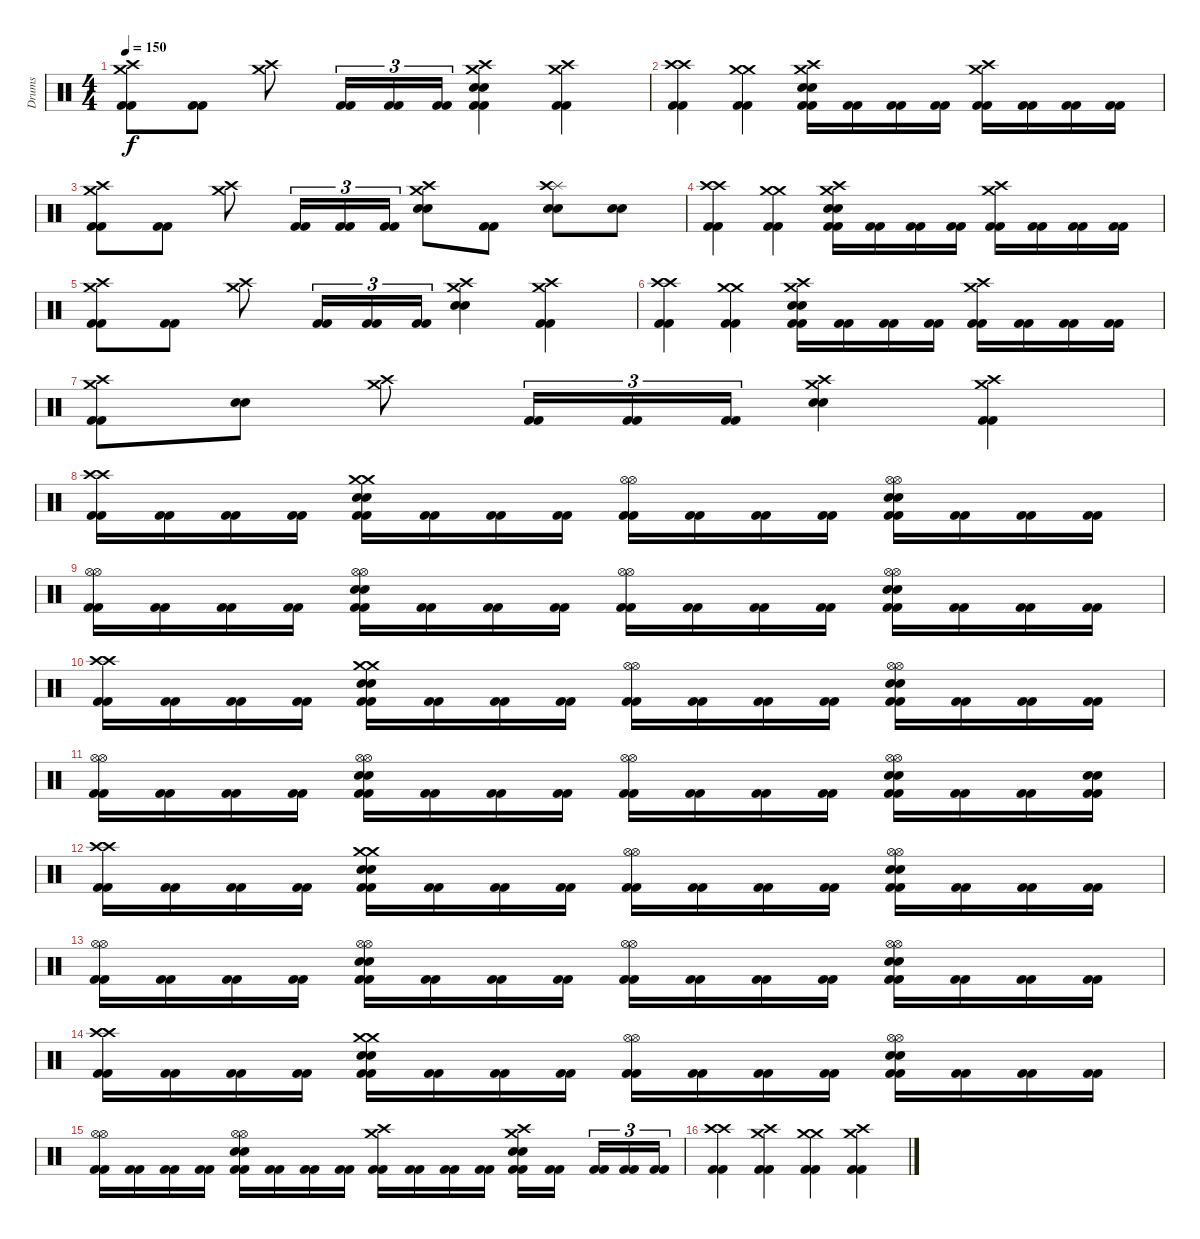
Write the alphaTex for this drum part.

\track ("Drums" "Drums") {instrument percussion}
\staff {score}
\articulation defaults
\ts (4 4)
\tempo 150
\clef neutral
\ks c
("Crash medium (hit)" "Crash high (hit)" "Kick (hit) 2" "Kick (hit) 2").8{dy f} ("Kick (hit) 2" "Kick (hit) 2").8 ("Crash medium (hit)" "Crash high (hit)").8 ("Kick (hit) 2" "Kick (hit) 2").16{tu (3 2)} ("Kick (hit) 2" "Kick (hit) 2").16{tu (3 2)} ("Kick (hit) 2" "Kick (hit) 2").16{tu (3 2)} ("Crash medium (hit)" "Crash high (hit)" "Electric Snare (hit)" "Electric Snare (hit)" "Kick (hit) 2" "Kick (hit) 2").4 ("Crash medium (hit)" "Crash high (hit)" "Kick (hit) 2" "Kick (hit) 2").4 |
("Crash high (hit)" "Crash high (hit)" "Kick (hit) 2" "Kick (hit) 2").4 ("Crash medium (hit)" "Crash medium (hit)" "Kick (hit) 2" "Kick (hit) 2").4 ("Crash medium (hit)" "Crash high (hit)" "Electric Snare (hit)" "Electric Snare (hit)" "Kick (hit) 2" "Kick (hit) 2").16 ("Kick (hit) 2" "Kick (hit) 2").16 ("Kick (hit) 2" "Kick (hit) 2").16 ("Kick (hit) 2" "Kick (hit) 2").16 ("Crash medium (hit)" "Crash high (hit)" "Kick (hit) 2" "Kick (hit) 2").16 ("Kick (hit) 2" "Kick (hit) 2").16 ("Kick (hit) 2" "Kick (hit) 2").16 ("Kick (hit) 2" "Kick (hit) 2").16 |
("Crash medium (hit)" "Crash high (hit)" "Kick (hit) 2" "Kick (hit) 2").8 ("Kick (hit) 2" "Kick (hit) 2").8 ("Crash medium (hit)" "Crash high (hit)").8 ("Kick (hit) 2" "Kick (hit) 2").16{tu (3 2)} ("Kick (hit) 2" "Kick (hit) 2").16{tu (3 2)} ("Kick (hit) 2" "Kick (hit) 2").16{tu (3 2)} ("Crash medium (hit)" "Crash high (hit)" "Electric Snare (hit)" "Electric Snare (hit)").8 ("Kick (hit) 2" "Kick (hit) 2").8 ("Splash (hit)" "Crash high (hit)" "Electric Snare (hit)" "Electric Snare (hit)").8 ("Electric Snare (hit)" "Electric Snare (hit)").8 |
("Crash high (hit)" "Crash high (hit)" "Kick (hit) 2" "Kick (hit) 2").4 ("Crash medium (hit)" "Crash medium (hit)" "Kick (hit) 2" "Kick (hit) 2").4 ("Crash medium (hit)" "Crash high (hit)" "Electric Snare (hit)" "Electric Snare (hit)" "Kick (hit) 2" "Kick (hit) 2").16 ("Kick (hit) 2" "Kick (hit) 2").16 ("Kick (hit) 2" "Kick (hit) 2").16 ("Kick (hit) 2" "Kick (hit) 2").16 ("Crash medium (hit)" "Crash high (hit)" "Kick (hit) 2" "Kick (hit) 2").16 ("Kick (hit) 2" "Kick (hit) 2").16 ("Kick (hit) 2" "Kick (hit) 2").16 ("Kick (hit) 2" "Kick (hit) 2").16 |
("Crash medium (hit)" "Crash high (hit)" "Kick (hit) 2" "Kick (hit) 2").8 ("Kick (hit) 2" "Kick (hit) 2").8 ("Crash medium (hit)" "Crash high (hit)").8 ("Kick (hit) 2" "Kick (hit) 2").16{tu (3 2)} ("Kick (hit) 2" "Kick (hit) 2").16{tu (3 2)} ("Kick (hit) 2" "Kick (hit) 2").16{tu (3 2)} ("Crash medium (hit)" "Crash high (hit)" "Electric Snare (hit)" "Electric Snare (hit)").4 ("Crash medium (hit)" "Crash high (hit)" "Kick (hit) 2" "Kick (hit) 2").4 |
("Crash high (hit)" "Crash high (hit)" "Kick (hit) 2" "Kick (hit) 2").4 ("Crash medium (hit)" "Crash medium (hit)" "Kick (hit) 2" "Kick (hit) 2").4 ("Crash medium (hit)" "Crash high (hit)" "Electric Snare (hit)" "Electric Snare (hit)" "Kick (hit) 2" "Kick (hit) 2").16 ("Kick (hit) 2" "Kick (hit) 2").16 ("Kick (hit) 2" "Kick (hit) 2").16 ("Kick (hit) 2" "Kick (hit) 2").16 ("Crash medium (hit)" "Crash high (hit)" "Kick (hit) 2" "Kick (hit) 2").16 ("Kick (hit) 2" "Kick (hit) 2").16 ("Kick (hit) 2" "Kick (hit) 2").16 ("Kick (hit) 2" "Kick (hit) 2").16 |
("Crash medium (hit)" "Crash high (hit)" "Kick (hit) 2" "Kick (hit) 2").8 ("Electric Snare (hit)" "Electric Snare (hit)").8 ("Crash medium (hit)" "Crash high (hit)").8 ("Kick (hit) 2" "Kick (hit) 2").16{tu (3 2)} ("Kick (hit) 2" "Kick (hit) 2").16{tu (3 2)} ("Kick (hit) 2" "Kick (hit) 2").16{tu (3 2)} ("Crash medium (hit)" "Crash high (hit)" "Electric Snare (hit)" "Electric Snare (hit)").4 ("Crash medium (hit)" "Crash high (hit)" "Kick (hit) 2" "Kick (hit) 2").4 |
("Crash high (hit)" "Crash high (hit)" "Kick (hit) 2" "Kick (hit) 2").16 ("Kick (hit) 2" "Kick (hit) 2").16 ("Kick (hit) 2" "Kick (hit) 2").16 ("Kick (hit) 2" "Kick (hit) 2").16 ("Crash medium (hit)" "Crash medium (hit)" "Electric Snare (hit)" "Electric Snare (hit)" "Kick (hit) 2" "Kick (hit) 2").16 ("Kick (hit) 2" "Kick (hit) 2").16 ("Kick (hit) 2" "Kick (hit) 2").16 ("Kick (hit) 2" "Kick (hit) 2").16 ("Hi-Hat (open)" "Hi-Hat (open)" "Kick (hit) 2" "Kick (hit) 2").16 ("Kick (hit) 2" "Kick (hit) 2").16 ("Kick (hit) 2" "Kick (hit) 2").16 ("Kick (hit) 2" "Kick (hit) 2").16 ("Hi-Hat (open)" "Hi-Hat (open)" "Electric Snare (hit)" "Electric Snare (hit)" "Kick (hit) 2" "Kick (hit) 2").16 ("Kick (hit) 2" "Kick (hit) 2").16 ("Kick (hit) 2" "Kick (hit) 2").16 ("Kick (hit) 2" "Kick (hit) 2").16 |
("Hi-Hat (open)" "Hi-Hat (open)" "Kick (hit) 2" "Kick (hit) 2").16 ("Kick (hit) 2" "Kick (hit) 2").16 ("Kick (hit) 2" "Kick (hit) 2").16 ("Kick (hit) 2" "Kick (hit) 2").16 ("Hi-Hat (open)" "Hi-Hat (open)" "Electric Snare (hit)" "Electric Snare (hit)" "Kick (hit) 2" "Kick (hit) 2").16 ("Kick (hit) 2" "Kick (hit) 2").16 ("Kick (hit) 2" "Kick (hit) 2").16 ("Kick (hit) 2" "Kick (hit) 2").16 ("Hi-Hat (open)" "Hi-Hat (open)" "Kick (hit) 2" "Kick (hit) 2").16 ("Kick (hit) 2" "Kick (hit) 2").16 ("Kick (hit) 2" "Kick (hit) 2").16 ("Kick (hit) 2" "Kick (hit) 2").16 ("Hi-Hat (open)" "Hi-Hat (open)" "Electric Snare (hit)" "Electric Snare (hit)" "Kick (hit) 2" "Kick (hit) 2").16 ("Kick (hit) 2" "Kick (hit) 2").16 ("Kick (hit) 2" "Kick (hit) 2").16 ("Kick (hit) 2" "Kick (hit) 2").16 |
("Crash high (hit)" "Crash high (hit)" "Kick (hit) 2" "Kick (hit) 2").16 ("Kick (hit) 2" "Kick (hit) 2").16 ("Kick (hit) 2" "Kick (hit) 2").16 ("Kick (hit) 2" "Kick (hit) 2").16 ("Crash medium (hit)" "Crash medium (hit)" "Electric Snare (hit)" "Electric Snare (hit)" "Kick (hit) 2" "Kick (hit) 2").16 ("Kick (hit) 2" "Kick (hit) 2").16 ("Kick (hit) 2" "Kick (hit) 2").16 ("Kick (hit) 2" "Kick (hit) 2").16 ("Hi-Hat (open)" "Hi-Hat (open)" "Kick (hit) 2" "Kick (hit) 2").16 ("Kick (hit) 2" "Kick (hit) 2").16 ("Kick (hit) 2" "Kick (hit) 2").16 ("Kick (hit) 2" "Kick (hit) 2").16 ("Hi-Hat (open)" "Hi-Hat (open)" "Electric Snare (hit)" "Electric Snare (hit)" "Kick (hit) 2" "Kick (hit) 2").16 ("Kick (hit) 2" "Kick (hit) 2").16 ("Kick (hit) 2" "Kick (hit) 2").16 ("Kick (hit) 2" "Kick (hit) 2").16 |
("Hi-Hat (open)" "Hi-Hat (open)" "Kick (hit) 2" "Kick (hit) 2").16 ("Kick (hit) 2" "Kick (hit) 2").16 ("Kick (hit) 2" "Kick (hit) 2").16 ("Kick (hit) 2" "Kick (hit) 2").16 ("Hi-Hat (open)" "Hi-Hat (open)" "Electric Snare (hit)" "Electric Snare (hit)" "Kick (hit) 2" "Kick (hit) 2").16 ("Kick (hit) 2" "Kick (hit) 2").16 ("Kick (hit) 2" "Kick (hit) 2").16 ("Kick (hit) 2" "Kick (hit) 2").16 ("Hi-Hat (open)" "Hi-Hat (open)" "Kick (hit) 2" "Kick (hit) 2").16 ("Kick (hit) 2" "Kick (hit) 2").16 ("Kick (hit) 2" "Kick (hit) 2").16 ("Kick (hit) 2" "Kick (hit) 2").16 ("Hi-Hat (open)" "Hi-Hat (open)" "Electric Snare (hit)" "Electric Snare (hit)" "Kick (hit) 2" "Kick (hit) 2").16 ("Kick (hit) 2" "Kick (hit) 2").16 ("Kick (hit) 2" "Kick (hit) 2").16 ("Electric Snare (hit)" "Electric Snare (hit)" "Kick (hit) 2" "Kick (hit) 2").16 |
("Crash high (hit)" "Crash high (hit)" "Kick (hit) 2" "Kick (hit) 2").16 ("Kick (hit) 2" "Kick (hit) 2").16 ("Kick (hit) 2" "Kick (hit) 2").16 ("Kick (hit) 2" "Kick (hit) 2").16 ("Crash medium (hit)" "Crash medium (hit)" "Electric Snare (hit)" "Electric Snare (hit)" "Kick (hit) 2" "Kick (hit) 2").16 ("Kick (hit) 2" "Kick (hit) 2").16 ("Kick (hit) 2" "Kick (hit) 2").16 ("Kick (hit) 2" "Kick (hit) 2").16 ("Hi-Hat (open)" "Hi-Hat (open)" "Kick (hit) 2" "Kick (hit) 2").16 ("Kick (hit) 2" "Kick (hit) 2").16 ("Kick (hit) 2" "Kick (hit) 2").16 ("Kick (hit) 2" "Kick (hit) 2").16 ("Hi-Hat (open)" "Hi-Hat (open)" "Electric Snare (hit)" "Electric Snare (hit)" "Kick (hit) 2" "Kick (hit) 2").16 ("Kick (hit) 2" "Kick (hit) 2").16 ("Kick (hit) 2" "Kick (hit) 2").16 ("Kick (hit) 2" "Kick (hit) 2").16 |
("Hi-Hat (open)" "Hi-Hat (open)" "Kick (hit) 2" "Kick (hit) 2").16 ("Kick (hit) 2" "Kick (hit) 2").16 ("Kick (hit) 2" "Kick (hit) 2").16 ("Kick (hit) 2" "Kick (hit) 2").16 ("Hi-Hat (open)" "Hi-Hat (open)" "Electric Snare (hit)" "Electric Snare (hit)" "Kick (hit) 2" "Kick (hit) 2").16 ("Kick (hit) 2" "Kick (hit) 2").16 ("Kick (hit) 2" "Kick (hit) 2").16 ("Kick (hit) 2" "Kick (hit) 2").16 ("Hi-Hat (open)" "Hi-Hat (open)" "Kick (hit) 2" "Kick (hit) 2").16 ("Kick (hit) 2" "Kick (hit) 2").16 ("Kick (hit) 2" "Kick (hit) 2").16 ("Kick (hit) 2" "Kick (hit) 2").16 ("Hi-Hat (open)" "Hi-Hat (open)" "Electric Snare (hit)" "Electric Snare (hit)" "Kick (hit) 2" "Kick (hit) 2").16 ("Kick (hit) 2" "Kick (hit) 2").16 ("Kick (hit) 2" "Kick (hit) 2").16 ("Kick (hit) 2" "Kick (hit) 2").16 |
("Crash high (hit)" "Crash high (hit)" "Kick (hit) 2" "Kick (hit) 2").16 ("Kick (hit) 2" "Kick (hit) 2").16 ("Kick (hit) 2" "Kick (hit) 2").16 ("Kick (hit) 2" "Kick (hit) 2").16 ("Crash medium (hit)" "Crash medium (hit)" "Electric Snare (hit)" "Electric Snare (hit)" "Kick (hit) 2" "Kick (hit) 2").16 ("Kick (hit) 2" "Kick (hit) 2").16 ("Kick (hit) 2" "Kick (hit) 2").16 ("Kick (hit) 2" "Kick (hit) 2").16 ("Hi-Hat (open)" "Hi-Hat (open)" "Kick (hit) 2" "Kick (hit) 2").16 ("Kick (hit) 2" "Kick (hit) 2").16 ("Kick (hit) 2" "Kick (hit) 2").16 ("Kick (hit) 2" "Kick (hit) 2").16 ("Hi-Hat (open)" "Hi-Hat (open)" "Electric Snare (hit)" "Electric Snare (hit)" "Kick (hit) 2" "Kick (hit) 2").16 ("Kick (hit) 2" "Kick (hit) 2").16 ("Kick (hit) 2" "Kick (hit) 2").16 ("Kick (hit) 2" "Kick (hit) 2").16 |
("Hi-Hat (open)" "Hi-Hat (open)" "Kick (hit) 2" "Kick (hit) 2").16 ("Kick (hit) 2" "Kick (hit) 2").16 ("Kick (hit) 2" "Kick (hit) 2").16 ("Kick (hit) 2" "Kick (hit) 2").16 ("Hi-Hat (open)" "Hi-Hat (open)" "Electric Snare (hit)" "Electric Snare (hit)" "Kick (hit) 2" "Kick (hit) 2").16 ("Kick (hit) 2" "Kick (hit) 2").16 ("Kick (hit) 2" "Kick (hit) 2").16 ("Kick (hit) 2" "Kick (hit) 2").16 ("Crash medium (hit)" "Crash high (hit)" "Kick (hit) 2" "Kick (hit) 2").16 ("Kick (hit) 2" "Kick (hit) 2").16 ("Kick (hit) 2" "Kick (hit) 2").16 ("Kick (hit) 2" "Kick (hit) 2").16 ("Crash high (hit)" "Crash medium (hit)" "Electric Snare (hit)" "Electric Snare (hit)" "Kick (hit) 2" "Kick (hit) 2").16 ("Kick (hit) 2" "Kick (hit) 2").16 ("Kick (hit) 2" "Kick (hit) 2").16{tu (3 2)} ("Kick (hit) 2" "Kick (hit) 2").16{tu (3 2)} ("Kick (hit) 2" "Kick (hit) 2").16{tu (3 2)} |
("Crash high (hit)" "Crash high (hit)" "Kick (hit) 2" "Kick (hit) 2").4 ("Crash high (hit)" "Crash medium (hit)" "Kick (hit) 2" "Kick (hit) 2").4 ("Crash medium (hit)" "Crash medium (hit)" "Kick (hit) 2" "Kick (hit) 2").4 ("Crash medium (hit)" "Crash high (hit)" "Kick (hit) 2" "Kick (hit) 2").4
